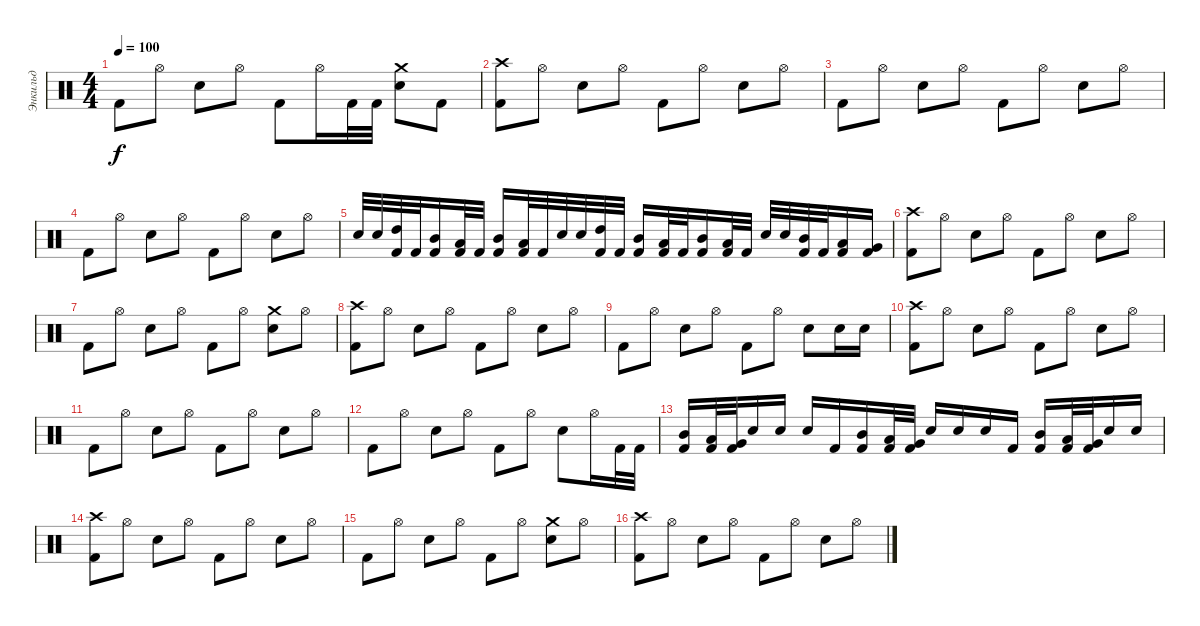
\track ("Энкильд" "Энкильд") {instrument percussion}
\staff {score}
\articulation defaults
\ts (4 4)
\tempo 100
\clef neutral
\ks c "Kick (hit) 2".8{dy f} "Hi-Hat (open)".8 "Snare (hit) 2".8 "Hi-Hat (open)".8 "Kick (hit) 2".8 "Hi-Hat (open)".16 "Kick (hit) 2".32 "Kick (hit) 2".32
("Crash medium (hit)" "Snare (hit) 2").8 "Kick (hit) 2".8 |
("Crash high (hit)" "Kick (hit) 2").8 "Hi-Hat (open)".8 "Snare (hit) 2".8 "Hi-Hat (open)".8 "Kick (hit) 2".8 "Hi-Hat (open)".8 "Snare (hit) 2".8 "Hi-Hat (open)".8 |
"Kick (hit) 2".8 "Hi-Hat (open)".8 "Snare (hit) 2".8 "Hi-Hat (open)".8 "Kick (hit) 2".8 "Hi-Hat (open)".8 "Snare (hit) 2".8 "Hi-Hat (open)".8 |
"Kick (hit) 2".8 "Hi-Hat (open)".8 "Snare (hit) 2".8 "Hi-Hat (open)".8 "Kick (hit) 2".8 "Hi-Hat (open)".8 "Snare (hit) 2".8 "Hi-Hat (open)".8 |
"Snare (hit) 2".32 "Snare (hit) 2".32 ("High Tom (hit)" "Kick (hit) 2").32 "Kick (hit) 2".32 ("Mid Tom (hit)" "Kick (hit) 2").16 ("Low Tom (hit)" "Kick (hit) 2").32 "Kick (hit) 2".32 ("Mid Tom (hit)" "Kick (hit) 2").16 ("Kick (hit) 2" "Low Tom (hit)").32 "Kick (hit) 2".32 "Snare (hit) 2".32 "Snare (hit) 2".32 ("High Tom (hit)" "Kick (hit) 2").32 "Kick (hit) 2".32 ("Mid Tom (hit)" "Kick (hit) 2").16 ("Low Tom (hit)" "Kick (hit) 2").32 "Kick (hit) 2".32 ("Mid Tom (hit)" "Kick (hit) 2").16 ("Kick (hit) 2" "Low Tom (hit)").32 "Kick (hit) 2".32 "Snare (hit) 2".32 "Snare (hit) 2".32 ("Mid Tom (hit)" "Kick (hit) 2").32 "Kick (hit) 2".32 ("Low Tom (hit)" "Kick (hit) 2").16 ("Very Low Tom (hit)" "Kick (hit) 2").16 |
("Crash high (hit)" "Kick (hit) 2").8 "Hi-Hat (open)".8 "Snare (hit) 2".8 "Hi-Hat (open)".8 "Kick (hit) 2".8 "Hi-Hat (open)".8 "Snare (hit) 2".8 "Hi-Hat (open)".8 |
"Kick (hit) 2".8 "Hi-Hat (open)".8 "Snare (hit) 2".8 "Hi-Hat (open)".8 "Kick (hit) 2".8 "Hi-Hat (open)".8 ("Crash medium (hit)" "Snare (hit) 2").8 "Hi-Hat (open)".8 |
("Crash high (hit)" "Kick (hit) 2").8 "Hi-Hat (open)".8 "Snare (hit) 2".8 "Hi-Hat (open)".8 "Kick (hit) 2".8 "Hi-Hat (open)".8 "Snare (hit) 2".8 "Hi-Hat (open)".8 |
"Kick (hit) 2".8 "Hi-Hat (open)".8 "Snare (hit) 2".8 "Hi-Hat (open)".8 "Kick (hit) 2".8 "Hi-Hat (open)".8 "Snare (hit) 2".8 "Snare (hit) 2".16 "Snare (hit) 2".16 |
("Crash high (hit)" "Kick (hit) 2").8 "Hi-Hat (open)".8 "Snare (hit) 2".8 "Hi-Hat (open)".8 "Kick (hit) 2".8 "Hi-Hat (open)".8 "Snare (hit) 2".8 "Hi-Hat (open)".8 |
"Kick (hit) 2".8 "Hi-Hat (open)".8 "Snare (hit) 2".8 "Hi-Hat (open)".8 "Kick (hit) 2".8 "Hi-Hat (open)".8 "Snare (hit) 2".8 "Hi-Hat (open)".8 |
"Kick (hit) 2".8 "Hi-Hat (open)".8 "Snare (hit) 2".8 "Hi-Hat (open)".8 "Kick (hit) 2".8 "Hi-Hat (open)".8 "Snare (hit) 2".8 "Hi-Hat (open)".16 "Kick (hit) 2".32 "Kick (hit) 2".32 |
("Kick (hit) 2" "Mid Tom (hit)").16 ("Low Tom (hit)" "Kick (hit) 2").32 ("Very Low Tom (hit)" "Kick (hit) 2").32 "Snare (hit) 2".16 "Snare (hit) 2".16 "Snare (hit) 2".16 "Kick (hit) 2".16 ("Kick (hit) 2" "Mid Tom (hit)").16 ("Kick (hit) 2" "Low Tom (hit)").32 ("Kick (hit) 2" "Very Low Tom (hit)").32 "Snare (hit) 2".16 "Snare (hit) 2".16 "Snare (hit) 2".16 "Kick (hit) 2".16 ("Kick (hit) 2" "Mid Tom (hit)").16 ("Kick (hit) 2" "Low Tom (hit)").32 ("Kick (hit) 2" "Very Low Tom (hit)").32 "Snare (hit) 2".16 "Snare (hit) 2".16 |
("Crash high (hit)" "Kick (hit) 2").8 "Hi-Hat (open)".8 "Snare (hit) 2".8 "Hi-Hat (open)".8 "Kick (hit) 2".8 "Hi-Hat (open)".8 "Snare (hit) 2".8 "Hi-Hat (open)".8 |
"Kick (hit) 2".8 "Hi-Hat (open)".8 "Snare (hit) 2".8 "Hi-Hat (open)".8 "Kick (hit) 2".8 "Hi-Hat (open)".8 ("Crash medium (hit)" "Snare (hit) 2").8 "Hi-Hat (open)".8 |
("Crash high (hit)" "Kick (hit) 2").8 "Hi-Hat (open)".8 "Snare (hit) 2".8 "Hi-Hat (open)".8 "Kick (hit) 2".8 "Hi-Hat (open)".8 "Snare (hit) 2".8 "Hi-Hat (open)".8
